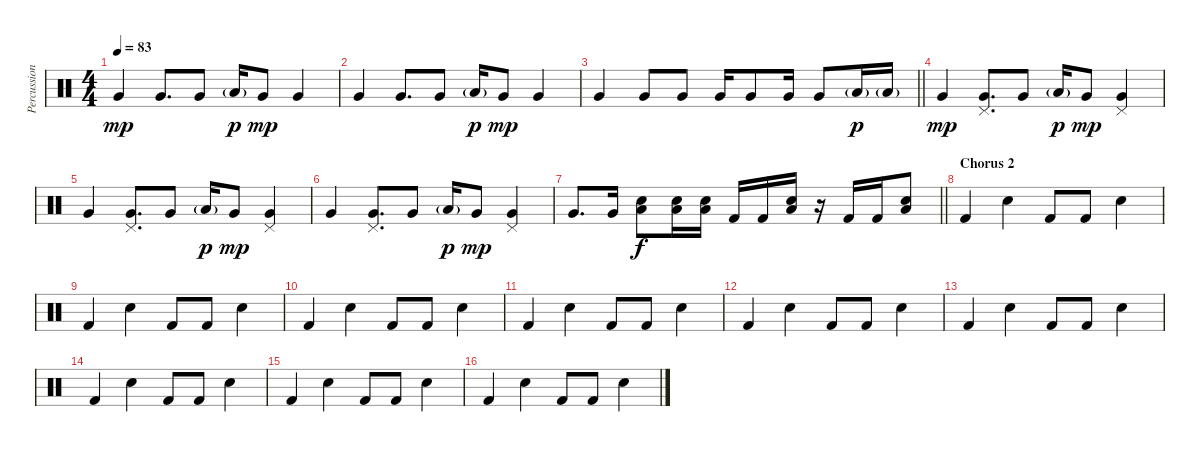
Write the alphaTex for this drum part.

\track ("Percussion" "Percussion") {instrument percussion}
\staff {score}
\articulation defaults
\ts (4 4)
\tempo 83
\clef neutral
\ks c "Very Low Tom (hit)".4{dy mp} "Very Low Tom (hit)".8{d} "Very Low Tom (hit)".8 "Low Floor Tom (hit)"{g}.16{dy p} "Very Low Tom (hit)".8{dy mp} "Very Low Tom (hit)".4
|
"Very Low Tom (hit)".4 "Very Low Tom (hit)".8{d} "Very Low Tom (hit)".8 "Low Floor Tom (hit)"{g}.16{dy p} "Very Low Tom (hit)".8{dy mp} "Very Low Tom (hit)".4 |
\barLineRight lightlight "Very Low Tom (hit)".4 "Very Low Tom (hit)".8 "Very Low Tom (hit)".8 "Very Low Tom (hit)".16 "Very Low Tom (hit)".8 "Very Low Tom (hit)".16 "Very Low Tom (hit)".8 "Low Floor Tom (hit)"{g}.16{dy p} "Low Floor Tom (hit)"{g}.16
|
"Very Low Tom (hit)".4{dy mp} ("Pedal Hi-Hat (hit)" "Very Low Tom (hit)").8{d} "Very Low Tom (hit)".8 "Low Floor Tom (hit)"{g}.16{dy p} "Very Low Tom (hit)".8{dy mp} ("Pedal Hi-Hat (hit)" "Very Low Tom (hit)").4 |
"Very Low Tom (hit)".4 ("Pedal Hi-Hat (hit)" "Very Low Tom (hit)").8{d} "Very Low Tom (hit)".8 "Low Floor Tom (hit)"{g}.16{dy p} "Very Low Tom (hit)".8{dy mp} ("Pedal Hi-Hat (hit)" "Very Low Tom (hit)").4 |
"Very Low Tom (hit)".4 ("Pedal Hi-Hat (hit)" "Very Low Tom (hit)").8{d} "Very Low Tom (hit)".8 "Low Floor Tom (hit)"{g}.16{dy p} "Very Low Tom (hit)".8{dy mp} ("Pedal Hi-Hat (hit)" "Very Low Tom (hit)").4 |
\barLineRight lightlight "Very Low Tom (hit)".8{d} "Very Low Tom (hit)".16
("Low Floor Tom (hit)" "Snare (hit) 2").8{dy f} ("Low Floor Tom (hit)" "Snare (hit) 2").16 ("Low Floor Tom (hit)" "Snare (hit) 2").16 "Kick (hit) 2".16 "Kick (hit) 2".16 ("Low Floor Tom (hit)" "Snare (hit) 2").16 r.16 "Kick (hit) 2".16 "Kick (hit) 2".16 ("Low Floor Tom (hit)" "Snare (hit) 2").8 |
\section ("" "Chorus 2")
"Kick (hit) 2".4 "Electric Snare (hit)".4 "Kick (hit) 2".8 "Kick (hit) 2".8 "Electric Snare (hit)".4 |
"Kick (hit) 2".4 "Electric Snare (hit)".4 "Kick (hit) 2".8 "Kick (hit) 2".8 "Electric Snare (hit)".4 |
"Kick (hit) 2".4 "Electric Snare (hit)".4 "Kick (hit) 2".8 "Kick (hit) 2".8 "Electric Snare (hit)".4 |
"Kick (hit) 2".4 "Electric Snare (hit)".4 "Kick (hit) 2".8 "Kick (hit) 2".8 "Electric Snare (hit)".4 |
"Kick (hit) 2".4 "Electric Snare (hit)".4 "Kick (hit) 2".8 "Kick (hit) 2".8 "Electric Snare (hit)".4 |
"Kick (hit) 2".4 "Electric Snare (hit)".4 "Kick (hit) 2".8 "Kick (hit) 2".8 "Electric Snare (hit)".4 |
"Kick (hit) 2".4 "Electric Snare (hit)".4 "Kick (hit) 2".8 "Kick (hit) 2".8 "Electric Snare (hit)".4 |
"Kick (hit) 2".4 "Electric Snare (hit)".4 "Kick (hit) 2".8 "Kick (hit) 2".8 "Electric Snare (hit)".4 |
"Kick (hit) 2".4 "Electric Snare (hit)".4 "Kick (hit) 2".8 "Kick (hit) 2".8 "Electric Snare (hit)".4
